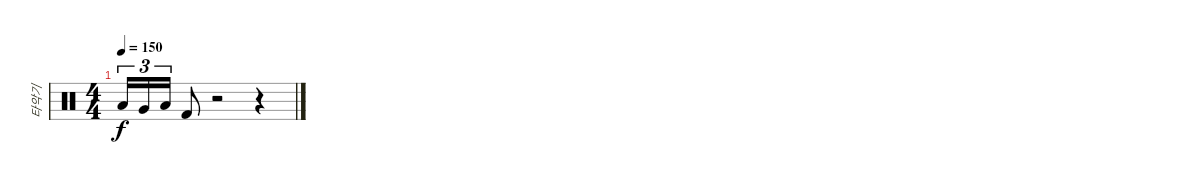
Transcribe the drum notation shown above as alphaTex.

\track ("타악기" "타악기") {instrument percussion}
\staff {score}
\articulation defaults
\ts (4 4)
\tempo 150
\clef neutral
\ks c "Low Tom (hit)".16{tu (3 2) dy f} "Very Low Tom (hit)".16{tu (3 2)} "Low Floor Tom (hit)".16{tu (3 2)} "Kick (hit) 2".8
r.2 r.4
